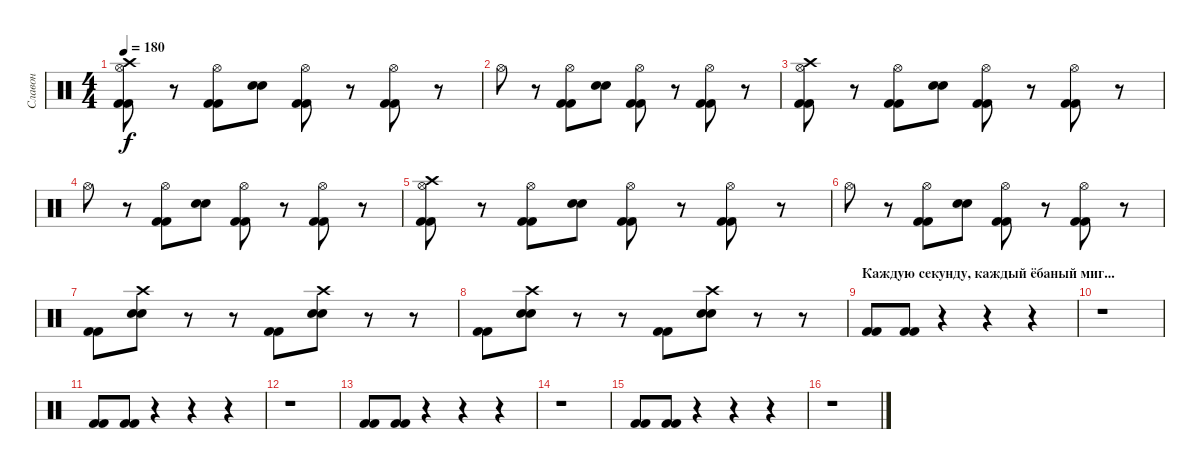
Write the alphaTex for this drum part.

\track ("Славон" "Славон") {instrument percussion}
\staff {score}
\articulation defaults
\ts (4 4)
\tempo 180
\clef neutral
\ks c
("Hi-Hat (open)" "Kick (hit) 2" "Kick (hit) 2" "Crash high (hit)").8{dy f} r.8 ("Hi-Hat (open)" "Kick (hit) 2" "Kick (hit) 2").8 ("Electric Snare (hit)" "Electric Snare (hit)").8 ("Hi-Hat (open)" "Kick (hit) 2" "Kick (hit) 2").8 r.8 ("Hi-Hat (open)" "Kick (hit) 2" "Kick (hit) 2").8 r.8 |
"Hi-Hat (open)".8 r.8 ("Hi-Hat (open)" "Kick (hit) 2" "Kick (hit) 2").8 ("Electric Snare (hit)" "Electric Snare (hit)").8 ("Hi-Hat (open)" "Kick (hit) 2" "Kick (hit) 2").8 r.8 ("Hi-Hat (open)" "Kick (hit) 2" "Kick (hit) 2").8 r.8 |
("Hi-Hat (open)" "Kick (hit) 2" "Kick (hit) 2" "Crash high (hit)").8 r.8 ("Hi-Hat (open)" "Kick (hit) 2" "Kick (hit) 2").8 ("Electric Snare (hit)" "Electric Snare (hit)").8 ("Hi-Hat (open)" "Kick (hit) 2" "Kick (hit) 2").8 r.8 ("Hi-Hat (open)" "Kick (hit) 2" "Kick (hit) 2").8 r.8 |
"Hi-Hat (open)".8 r.8 ("Hi-Hat (open)" "Kick (hit) 2" "Kick (hit) 2").8 ("Electric Snare (hit)" "Electric Snare (hit)").8 ("Hi-Hat (open)" "Kick (hit) 2" "Kick (hit) 2").8 r.8 ("Hi-Hat (open)" "Kick (hit) 2" "Kick (hit) 2").8 r.8 |
("Hi-Hat (open)" "Kick (hit) 2" "Kick (hit) 2" "Crash high (hit)").8 r.8 ("Hi-Hat (open)" "Kick (hit) 2" "Kick (hit) 2").8 ("Electric Snare (hit)" "Electric Snare (hit)").8 ("Hi-Hat (open)" "Kick (hit) 2" "Kick (hit) 2").8 r.8 ("Hi-Hat (open)" "Kick (hit) 2" "Kick (hit) 2").8 r.8 |
"Hi-Hat (open)".8 r.8 ("Hi-Hat (open)" "Kick (hit) 2" "Kick (hit) 2").8 ("Electric Snare (hit)" "Electric Snare (hit)").8 ("Hi-Hat (open)" "Kick (hit) 2" "Kick (hit) 2").8 r.8 ("Hi-Hat (open)" "Kick (hit) 2" "Kick (hit) 2").8 r.8 |
("Kick (hit) 2" "Kick (hit) 2").8 ("Crash high (hit)" "Electric Snare (hit)" "Electric Snare (hit)").8 r.8 r.8 ("Kick (hit) 2" "Kick (hit) 2").8 ("Crash high (hit)" "Electric Snare (hit)" "Electric Snare (hit)").8 r.8 r.8 |
("Kick (hit) 2" "Kick (hit) 2").8 ("Crash high (hit)" "Electric Snare (hit)" "Electric Snare (hit)").8 r.8 r.8 ("Kick (hit) 2" "Kick (hit) 2").8 ("Crash high (hit)" "Electric Snare (hit)" "Electric Snare (hit)").8 r.8 r.8 |
\section ("" "Каждую секунду, каждый ёбаный миг...")
("Kick (hit) 2" "Kick (hit) 2").8 ("Kick (hit) 2" "Kick (hit) 2").8 r.4 r.4 r.4 |
r.1 |
("Kick (hit) 2" "Kick (hit) 2").8 ("Kick (hit) 2" "Kick (hit) 2").8 r.4 r.4 r.4 |
r.1 |
("Kick (hit) 2" "Kick (hit) 2").8 ("Kick (hit) 2" "Kick (hit) 2").8 r.4 r.4 r.4 |
r.1 |
("Kick (hit) 2" "Kick (hit) 2").8 ("Kick (hit) 2" "Kick (hit) 2").8 r.4 r.4 r.4 |
r.1
